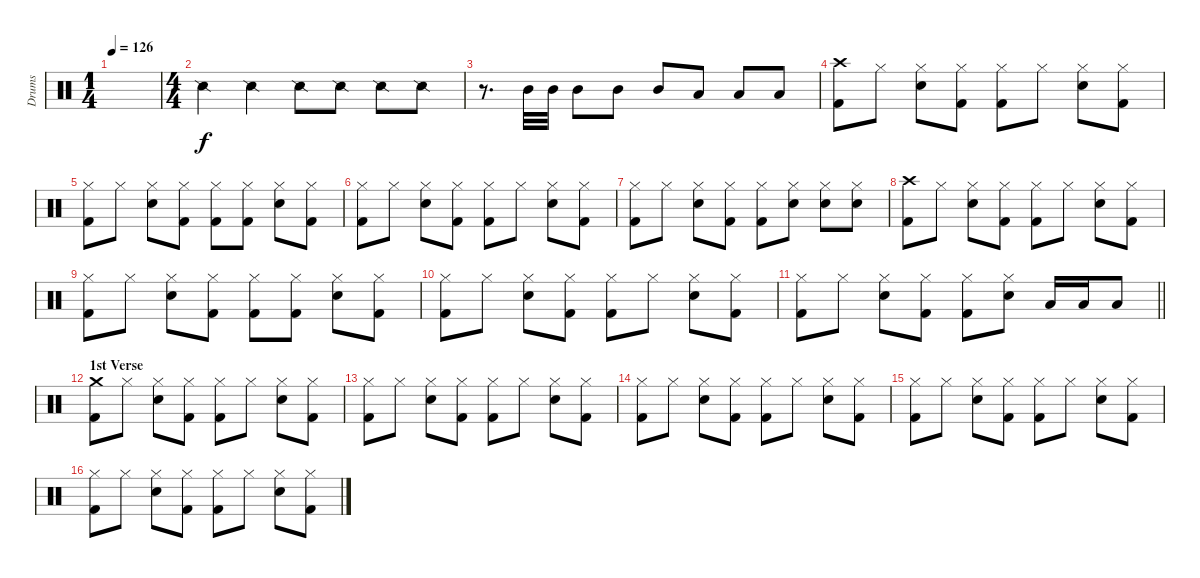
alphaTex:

\track ("Drums" "Drums") {instrument percussion}
\staff {score}
\articulation defaults
\ts (1 4)
\tempo 126
\clef neutral
\ks c
|
\ts (4 4)
"Snare (side stick) 2".4 "Snare (side stick) 2".4 "Snare (side stick) 2".8 "Snare (side stick) 2".8 "Snare (side stick) 2".8 "Snare (side stick) 2".8 |
r.8{d} "Mid Tom (hit)".32 "Mid Tom (hit)".32 "Mid Tom (hit)".8 "Mid Tom (hit)".8 "Mid Tom (hit)".8 "Low Tom (hit)".8 "Low Tom (hit)".8 "Low Tom (hit)".8 |
("Crash high (hit)" "Kick (hit) 2").8 "Hi-Hat (closed)".8 ("Hi-Hat (closed)" "Snare (hit) 2").8 ("Hi-Hat (closed)" "Kick (hit) 2").8 ("Hi-Hat (closed)" "Kick (hit) 2").8 "Hi-Hat (closed)".8 ("Hi-Hat (closed)" "Snare (hit) 2").8 ("Hi-Hat (closed)" "Kick (hit) 2").8 |
("Hi-Hat (closed)" "Kick (hit) 2").8 "Hi-Hat (closed)".8 ("Hi-Hat (closed)" "Snare (hit) 2").8 ("Hi-Hat (closed)" "Kick (hit) 2").8 ("Hi-Hat (closed)" "Kick (hit) 2").8 ("Hi-Hat (closed)" "Kick (hit) 2").8 ("Hi-Hat (closed)" "Snare (hit) 2").8 ("Hi-Hat (closed)" "Kick (hit) 2").8 |
("Hi-Hat (closed)" "Kick (hit) 2").8 "Hi-Hat (closed)".8 ("Hi-Hat (closed)" "Snare (hit) 2").8 ("Hi-Hat (closed)" "Kick (hit) 2").8 ("Hi-Hat (closed)" "Kick (hit) 2").8 "Hi-Hat (closed)".8 ("Hi-Hat (closed)" "Snare (hit) 2").8 ("Hi-Hat (closed)" "Kick (hit) 2").8 |
("Hi-Hat (closed)" "Kick (hit) 2").8 "Hi-Hat (closed)".8 ("Hi-Hat (closed)" "Snare (hit) 2").8 ("Hi-Hat (closed)" "Kick (hit) 2").8 ("Hi-Hat (closed)" "Kick (hit) 2").8 ("Hi-Hat (closed)" "Snare (hit) 2").8 ("Hi-Hat (closed)" "Snare (hit) 2").8 ("Hi-Hat (closed)" "Snare (hit) 2").8 |
("Crash high (hit)" "Kick (hit) 2").8 "Hi-Hat (closed)".8 ("Hi-Hat (closed)" "Snare (hit) 2").8 ("Hi-Hat (closed)" "Kick (hit) 2").8 ("Hi-Hat (closed)" "Kick (hit) 2").8 "Hi-Hat (closed)".8 ("Hi-Hat (closed)" "Snare (hit) 2").8 ("Hi-Hat (closed)" "Kick (hit) 2").8 |
("Hi-Hat (closed)" "Kick (hit) 2").8 "Hi-Hat (closed)".8 ("Hi-Hat (closed)" "Snare (hit) 2").8 ("Hi-Hat (closed)" "Kick (hit) 2").8 ("Hi-Hat (closed)" "Kick (hit) 2").8 ("Hi-Hat (closed)" "Kick (hit) 2").8 ("Hi-Hat (closed)" "Snare (hit) 2").8 ("Hi-Hat (closed)" "Kick (hit) 2").8 |
("Hi-Hat (closed)" "Kick (hit) 2").8 "Hi-Hat (closed)".8 ("Hi-Hat (closed)" "Snare (hit) 2").8 ("Hi-Hat (closed)" "Kick (hit) 2").8 ("Hi-Hat (closed)" "Kick (hit) 2").8 "Hi-Hat (closed)".8 ("Hi-Hat (closed)" "Snare (hit) 2").8 ("Hi-Hat (closed)" "Kick (hit) 2").8 |
\barLineRight lightlight
("Hi-Hat (closed)" "Kick (hit) 2").8 "Hi-Hat (closed)".8 ("Hi-Hat (closed)" "Snare (hit) 2").8 ("Hi-Hat (closed)" "Kick (hit) 2").8 ("Hi-Hat (closed)" "Kick (hit) 2").8 ("Hi-Hat (closed)" "Snare (hit) 2").8 "Low Tom (hit)".16 "Low Tom (hit)".16 "Low Tom (hit)".8 |
\section ("" "1st Verse")
("Crash medium (hit)" "Kick (hit) 2").8 "Hi-Hat (closed)".8 ("Hi-Hat (closed)" "Snare (hit) 2").8 ("Hi-Hat (closed)" "Kick (hit) 2").8 ("Hi-Hat (closed)" "Kick (hit) 2").8 "Hi-Hat (closed)".8 ("Hi-Hat (closed)" "Snare (hit) 2").8 ("Hi-Hat (closed)" "Kick (hit) 2").8 |
("Hi-Hat (closed)" "Kick (hit) 2").8 "Hi-Hat (closed)".8 ("Hi-Hat (closed)" "Snare (hit) 2").8 ("Hi-Hat (closed)" "Kick (hit) 2").8 ("Hi-Hat (closed)" "Kick (hit) 2").8 "Hi-Hat (closed)".8 ("Hi-Hat (closed)" "Snare (hit) 2").8 ("Hi-Hat (closed)" "Kick (hit) 2").8 |
("Hi-Hat (closed)" "Kick (hit) 2").8 "Hi-Hat (closed)".8 ("Hi-Hat (closed)" "Snare (hit) 2").8 ("Hi-Hat (closed)" "Kick (hit) 2").8 ("Hi-Hat (closed)" "Kick (hit) 2").8 "Hi-Hat (closed)".8 ("Hi-Hat (closed)" "Snare (hit) 2").8 ("Hi-Hat (closed)" "Kick (hit) 2").8 |
("Hi-Hat (closed)" "Kick (hit) 2").8 "Hi-Hat (closed)".8 ("Hi-Hat (closed)" "Snare (hit) 2").8 ("Hi-Hat (closed)" "Kick (hit) 2").8 ("Hi-Hat (closed)" "Kick (hit) 2").8 "Hi-Hat (closed)".8 ("Hi-Hat (closed)" "Snare (hit) 2").8 ("Hi-Hat (closed)" "Kick (hit) 2").8 |
("Hi-Hat (closed)" "Kick (hit) 2").8 "Hi-Hat (closed)".8 ("Hi-Hat (closed)" "Snare (hit) 2").8 ("Hi-Hat (closed)" "Kick (hit) 2").8 ("Hi-Hat (closed)" "Kick (hit) 2").8 "Hi-Hat (closed)".8 ("Hi-Hat (closed)" "Snare (hit) 2").8 ("Hi-Hat (closed)" "Kick (hit) 2").8
